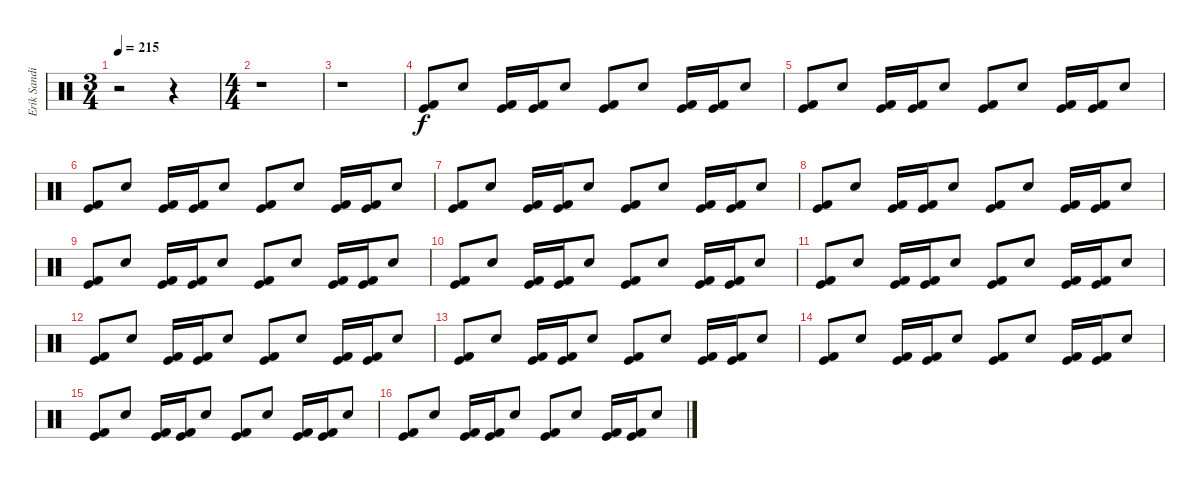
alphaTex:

\track ("Erik Sandin" "Erik Sandi") {instrument percussion}
\staff {score}
\articulation defaults
\ts (3 4)
\tempo 215
\clef neutral
\ks c
r.2{dy f} r.4 |
\ts (4 4)
r.1 |
r.1 |
("Kick (hit) 2" "Kick (hit)").8 "Electric Snare (hit)".8 ("Kick (hit) 2" "Kick (hit)").16 ("Kick (hit) 2" "Kick (hit)").16 "Electric Snare (hit)".8 ("Kick (hit) 2" "Kick (hit)").8 "Electric Snare (hit)".8 ("Kick (hit) 2" "Kick (hit)").16 ("Kick (hit) 2" "Kick (hit)").16 "Electric Snare (hit)".8 |
("Kick (hit) 2" "Kick (hit)").8 "Electric Snare (hit)".8 ("Kick (hit) 2" "Kick (hit)").16 ("Kick (hit) 2" "Kick (hit)").16 "Electric Snare (hit)".8 ("Kick (hit) 2" "Kick (hit)").8 "Electric Snare (hit)".8 ("Kick (hit) 2" "Kick (hit)").16 ("Kick (hit) 2" "Kick (hit)").16 "Electric Snare (hit)".8 |
("Kick (hit) 2" "Kick (hit)").8 "Electric Snare (hit)".8 ("Kick (hit) 2" "Kick (hit)").16 ("Kick (hit) 2" "Kick (hit)").16 "Electric Snare (hit)".8 ("Kick (hit) 2" "Kick (hit)").8 "Electric Snare (hit)".8 ("Kick (hit) 2" "Kick (hit)").16 ("Kick (hit) 2" "Kick (hit)").16 "Electric Snare (hit)".8 |
("Kick (hit) 2" "Kick (hit)").8 "Electric Snare (hit)".8 ("Kick (hit) 2" "Kick (hit)").16 ("Kick (hit) 2" "Kick (hit)").16 "Electric Snare (hit)".8 ("Kick (hit) 2" "Kick (hit)").8 "Electric Snare (hit)".8 ("Kick (hit) 2" "Kick (hit)").16 ("Kick (hit) 2" "Kick (hit)").16 "Electric Snare (hit)".8 |
("Kick (hit) 2" "Kick (hit)").8 "Electric Snare (hit)".8 ("Kick (hit) 2" "Kick (hit)").16 ("Kick (hit) 2" "Kick (hit)").16 "Electric Snare (hit)".8 ("Kick (hit) 2" "Kick (hit)").8 "Electric Snare (hit)".8 ("Kick (hit) 2" "Kick (hit)").16 ("Kick (hit) 2" "Kick (hit)").16 "Electric Snare (hit)".8 |
("Kick (hit) 2" "Kick (hit)").8 "Electric Snare (hit)".8 ("Kick (hit) 2" "Kick (hit)").16 ("Kick (hit) 2" "Kick (hit)").16 "Electric Snare (hit)".8 ("Kick (hit) 2" "Kick (hit)").8 "Electric Snare (hit)".8 ("Kick (hit) 2" "Kick (hit)").16 ("Kick (hit) 2" "Kick (hit)").16 "Electric Snare (hit)".8 |
("Kick (hit) 2" "Kick (hit)").8 "Electric Snare (hit)".8 ("Kick (hit) 2" "Kick (hit)").16 ("Kick (hit) 2" "Kick (hit)").16 "Electric Snare (hit)".8 ("Kick (hit) 2" "Kick (hit)").8 "Electric Snare (hit)".8 ("Kick (hit) 2" "Kick (hit)").16 ("Kick (hit) 2" "Kick (hit)").16 "Electric Snare (hit)".8 |
("Kick (hit) 2" "Kick (hit)").8 "Electric Snare (hit)".8 ("Kick (hit) 2" "Kick (hit)").16 ("Kick (hit) 2" "Kick (hit)").16 "Electric Snare (hit)".8 ("Kick (hit) 2" "Kick (hit)").8 "Electric Snare (hit)".8 ("Kick (hit) 2" "Kick (hit)").16 ("Kick (hit) 2" "Kick (hit)").16 "Electric Snare (hit)".8 |
("Kick (hit) 2" "Kick (hit)").8 "Electric Snare (hit)".8 ("Kick (hit) 2" "Kick (hit)").16 ("Kick (hit) 2" "Kick (hit)").16 "Electric Snare (hit)".8 ("Kick (hit) 2" "Kick (hit)").8 "Electric Snare (hit)".8 ("Kick (hit) 2" "Kick (hit)").16 ("Kick (hit) 2" "Kick (hit)").16 "Electric Snare (hit)".8 |
("Kick (hit) 2" "Kick (hit)").8 "Electric Snare (hit)".8 ("Kick (hit) 2" "Kick (hit)").16 ("Kick (hit) 2" "Kick (hit)").16 "Electric Snare (hit)".8 ("Kick (hit) 2" "Kick (hit)").8 "Electric Snare (hit)".8 ("Kick (hit) 2" "Kick (hit)").16 ("Kick (hit) 2" "Kick (hit)").16 "Electric Snare (hit)".8 |
("Kick (hit) 2" "Kick (hit)").8 "Electric Snare (hit)".8 ("Kick (hit) 2" "Kick (hit)").16 ("Kick (hit) 2" "Kick (hit)").16 "Electric Snare (hit)".8 ("Kick (hit) 2" "Kick (hit)").8 "Electric Snare (hit)".8 ("Kick (hit) 2" "Kick (hit)").16 ("Kick (hit) 2" "Kick (hit)").16 "Electric Snare (hit)".8 |
("Kick (hit) 2" "Kick (hit)").8 "Electric Snare (hit)".8 ("Kick (hit) 2" "Kick (hit)").16 ("Kick (hit) 2" "Kick (hit)").16 "Electric Snare (hit)".8 ("Kick (hit) 2" "Kick (hit)").8 "Electric Snare (hit)".8 ("Kick (hit) 2" "Kick (hit)").16 ("Kick (hit) 2" "Kick (hit)").16 "Electric Snare (hit)".8 |
("Kick (hit) 2" "Kick (hit)").8 "Electric Snare (hit)".8 ("Kick (hit) 2" "Kick (hit)").16 ("Kick (hit) 2" "Kick (hit)").16 "Electric Snare (hit)".8 ("Kick (hit) 2" "Kick (hit)").8 "Electric Snare (hit)".8 ("Kick (hit) 2" "Kick (hit)").16 ("Kick (hit) 2" "Kick (hit)").16 "Electric Snare (hit)".8
